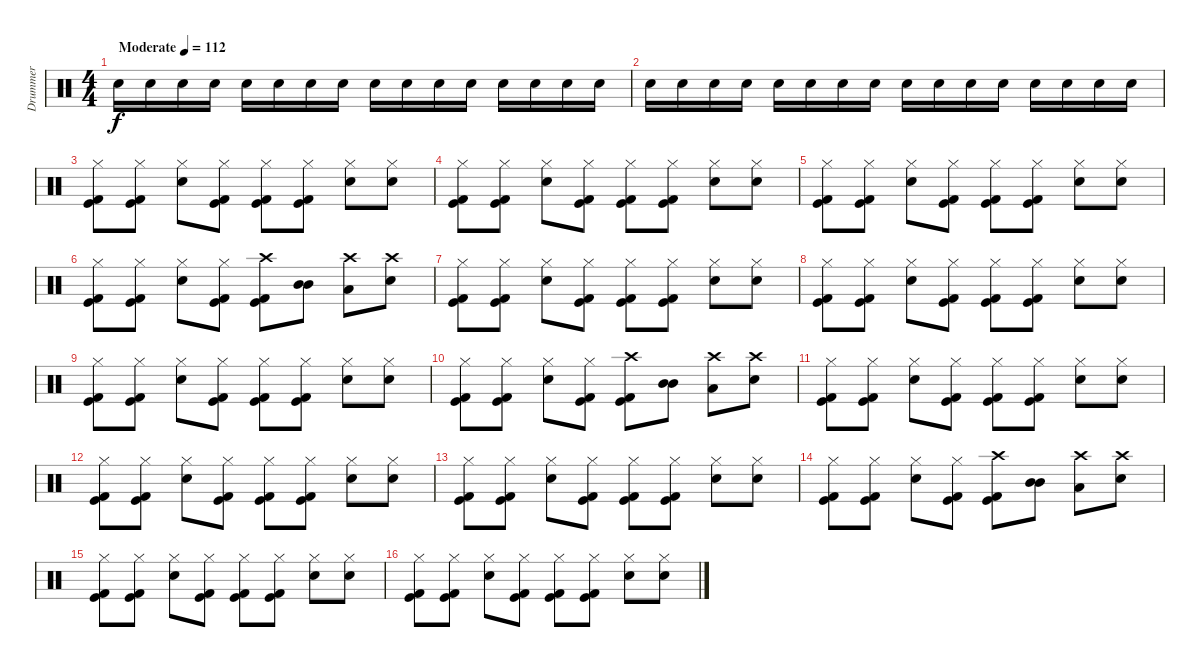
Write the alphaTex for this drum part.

\track ("Drummer" "Drummer") {instrument percussion}
\staff {score}
\articulation defaults
\ts (4 4)
\tempo (112 "Moderate")
\clef neutral
\ks c "Snare (hit) 2".16{dy f} "Snare (hit) 2".16 "Snare (hit) 2".16 "Snare (hit) 2".16 "Snare (hit) 2".16 "Snare (hit) 2".16 "Snare (hit) 2".16 "Snare (hit) 2".16 "Snare (hit) 2".16 "Snare (hit) 2".16 "Snare (hit) 2".16 "Snare (hit) 2".16 "Snare (hit) 2".16 "Snare (hit) 2".16 "Snare (hit) 2".16 "Snare (hit) 2".16
|
"Snare (hit) 2".16 "Snare (hit) 2".16 "Snare (hit) 2".16 "Snare (hit) 2".16 "Snare (hit) 2".16 "Snare (hit) 2".16 "Snare (hit) 2".16 "Snare (hit) 2".16 "Snare (hit) 2".16 "Snare (hit) 2".16 "Snare (hit) 2".16 "Snare (hit) 2".16 "Snare (hit) 2".16 "Snare (hit) 2".16 "Snare (hit) 2".16 "Snare (hit) 2".16 |
("Hi-Hat (closed)" "Kick (hit)" "Kick (hit) 2").8 ("Hi-Hat (closed)" "Kick (hit) 2" "Kick (hit)").8 ("Hi-Hat (closed)" "Snare (hit) 2").8 ("Hi-Hat (closed)" "Kick (hit)" "Kick (hit) 2").8 ("Hi-Hat (closed)" "Kick (hit) 2" "Kick (hit)").8 ("Hi-Hat (closed)" "Kick (hit)" "Kick (hit) 2").8 ("Hi-Hat (closed)" "Snare (hit) 2").8 ("Hi-Hat (closed)" "Snare (hit) 2").8 |
("Hi-Hat (closed)" "Kick (hit)" "Kick (hit) 2").8 ("Hi-Hat (closed)" "Kick (hit) 2" "Kick (hit)").8 ("Hi-Hat (closed)" "Snare (hit) 2").8 ("Hi-Hat (closed)" "Kick (hit)" "Kick (hit) 2").8 ("Hi-Hat (closed)" "Kick (hit) 2" "Kick (hit)").8 ("Hi-Hat (closed)" "Kick (hit)" "Kick (hit) 2").8 ("Hi-Hat (closed)" "Snare (hit) 2").8 ("Hi-Hat (closed)" "Snare (hit) 2").8 |
("Hi-Hat (closed)" "Kick (hit)" "Kick (hit) 2").8 ("Hi-Hat (closed)" "Kick (hit) 2" "Kick (hit)").8 ("Hi-Hat (closed)" "Snare (hit) 2").8 ("Hi-Hat (closed)" "Kick (hit)" "Kick (hit) 2").8 ("Hi-Hat (closed)" "Kick (hit) 2" "Kick (hit)").8 ("Hi-Hat (closed)" "Kick (hit)" "Kick (hit) 2").8 ("Hi-Hat (closed)" "Snare (hit) 2").8 ("Hi-Hat (closed)" "Snare (hit) 2").8 |
("Hi-Hat (closed)" "Kick (hit)" "Kick (hit) 2").8 ("Hi-Hat (closed)" "Kick (hit) 2" "Kick (hit)").8 ("Hi-Hat (closed)" "Snare (hit) 2").8 ("Hi-Hat (closed)" "Kick (hit)" "Kick (hit) 2").8 ("Crash high (hit)" "Kick (hit) 2" "Kick (hit)").8 ("Mid Tom (hit)" "Mid Tom (hit)").8 ("Crash high (hit)" "Low Tom (hit)").8 ("Crash high (hit)" "Snare (hit) 2").8 |
("Hi-Hat (closed)" "Kick (hit)" "Kick (hit) 2").8 ("Hi-Hat (closed)" "Kick (hit) 2" "Kick (hit)").8 ("Hi-Hat (closed)" "Snare (hit) 2").8 ("Hi-Hat (closed)" "Kick (hit)" "Kick (hit) 2").8 ("Hi-Hat (closed)" "Kick (hit) 2" "Kick (hit)").8 ("Hi-Hat (closed)" "Kick (hit)" "Kick (hit) 2").8 ("Hi-Hat (closed)" "Snare (hit) 2").8 ("Hi-Hat (closed)" "Snare (hit) 2").8 |
("Hi-Hat (closed)" "Kick (hit)" "Kick (hit) 2").8 ("Hi-Hat (closed)" "Kick (hit) 2" "Kick (hit)").8 ("Hi-Hat (closed)" "Snare (hit) 2").8 ("Hi-Hat (closed)" "Kick (hit)" "Kick (hit) 2").8 ("Hi-Hat (closed)" "Kick (hit) 2" "Kick (hit)").8 ("Hi-Hat (closed)" "Kick (hit)" "Kick (hit) 2").8 ("Hi-Hat (closed)" "Snare (hit) 2").8 ("Hi-Hat (closed)" "Snare (hit) 2").8 |
("Hi-Hat (closed)" "Kick (hit)" "Kick (hit) 2").8 ("Hi-Hat (closed)" "Kick (hit) 2" "Kick (hit)").8 ("Hi-Hat (closed)" "Snare (hit) 2").8 ("Hi-Hat (closed)" "Kick (hit)" "Kick (hit) 2").8 ("Hi-Hat (closed)" "Kick (hit) 2" "Kick (hit)").8 ("Hi-Hat (closed)" "Kick (hit)" "Kick (hit) 2").8 ("Hi-Hat (closed)" "Snare (hit) 2").8 ("Hi-Hat (closed)" "Snare (hit) 2").8 |
("Hi-Hat (closed)" "Kick (hit)" "Kick (hit) 2").8 ("Hi-Hat (closed)" "Kick (hit) 2" "Kick (hit)").8 ("Hi-Hat (closed)" "Snare (hit) 2").8 ("Hi-Hat (closed)" "Kick (hit)" "Kick (hit) 2").8 ("Crash high (hit)" "Kick (hit) 2" "Kick (hit)").8 ("Mid Tom (hit)" "Mid Tom (hit)").8 ("Crash high (hit)" "Low Tom (hit)").8 ("Crash high (hit)" "Snare (hit) 2").8 |
("Hi-Hat (closed)" "Kick (hit)" "Kick (hit) 2").8 ("Hi-Hat (closed)" "Kick (hit) 2" "Kick (hit)").8 ("Hi-Hat (closed)" "Snare (hit) 2").8 ("Hi-Hat (closed)" "Kick (hit)" "Kick (hit) 2").8 ("Hi-Hat (closed)" "Kick (hit) 2" "Kick (hit)").8 ("Hi-Hat (closed)" "Kick (hit)" "Kick (hit) 2").8 ("Hi-Hat (closed)" "Snare (hit) 2").8 ("Hi-Hat (closed)" "Snare (hit) 2").8 |
("Hi-Hat (closed)" "Kick (hit)" "Kick (hit) 2").8 ("Hi-Hat (closed)" "Kick (hit) 2" "Kick (hit)").8 ("Hi-Hat (closed)" "Snare (hit) 2").8 ("Hi-Hat (closed)" "Kick (hit)" "Kick (hit) 2").8 ("Hi-Hat (closed)" "Kick (hit) 2" "Kick (hit)").8 ("Hi-Hat (closed)" "Kick (hit)" "Kick (hit) 2").8 ("Hi-Hat (closed)" "Snare (hit) 2").8 ("Hi-Hat (closed)" "Snare (hit) 2").8 |
("Hi-Hat (closed)" "Kick (hit)" "Kick (hit) 2").8 ("Hi-Hat (closed)" "Kick (hit) 2" "Kick (hit)").8 ("Hi-Hat (closed)" "Snare (hit) 2").8 ("Hi-Hat (closed)" "Kick (hit)" "Kick (hit) 2").8 ("Hi-Hat (closed)" "Kick (hit) 2" "Kick (hit)").8 ("Hi-Hat (closed)" "Kick (hit)" "Kick (hit) 2").8 ("Hi-Hat (closed)" "Snare (hit) 2").8 ("Hi-Hat (closed)" "Snare (hit) 2").8 |
("Hi-Hat (closed)" "Kick (hit)" "Kick (hit) 2").8 ("Hi-Hat (closed)" "Kick (hit) 2" "Kick (hit)").8 ("Hi-Hat (closed)" "Snare (hit) 2").8 ("Hi-Hat (closed)" "Kick (hit)" "Kick (hit) 2").8 ("Crash high (hit)" "Kick (hit) 2" "Kick (hit)").8 ("Mid Tom (hit)" "Mid Tom (hit)").8 ("Crash high (hit)" "Low Tom (hit)").8 ("Crash high (hit)" "Snare (hit) 2").8 |
("Hi-Hat (closed)" "Kick (hit)" "Kick (hit) 2").8 ("Hi-Hat (closed)" "Kick (hit) 2" "Kick (hit)").8 ("Hi-Hat (closed)" "Snare (hit) 2").8 ("Hi-Hat (closed)" "Kick (hit)" "Kick (hit) 2").8 ("Hi-Hat (closed)" "Kick (hit) 2" "Kick (hit)").8 ("Hi-Hat (closed)" "Kick (hit)" "Kick (hit) 2").8 ("Hi-Hat (closed)" "Snare (hit) 2").8 ("Hi-Hat (closed)" "Snare (hit) 2").8 |
("Hi-Hat (closed)" "Kick (hit)" "Kick (hit) 2").8 ("Hi-Hat (closed)" "Kick (hit) 2" "Kick (hit)").8 ("Hi-Hat (closed)" "Snare (hit) 2").8 ("Hi-Hat (closed)" "Kick (hit)" "Kick (hit) 2").8 ("Hi-Hat (closed)" "Kick (hit) 2" "Kick (hit)").8 ("Hi-Hat (closed)" "Kick (hit)" "Kick (hit) 2").8 ("Hi-Hat (closed)" "Snare (hit) 2").8 ("Hi-Hat (closed)" "Snare (hit) 2").8
